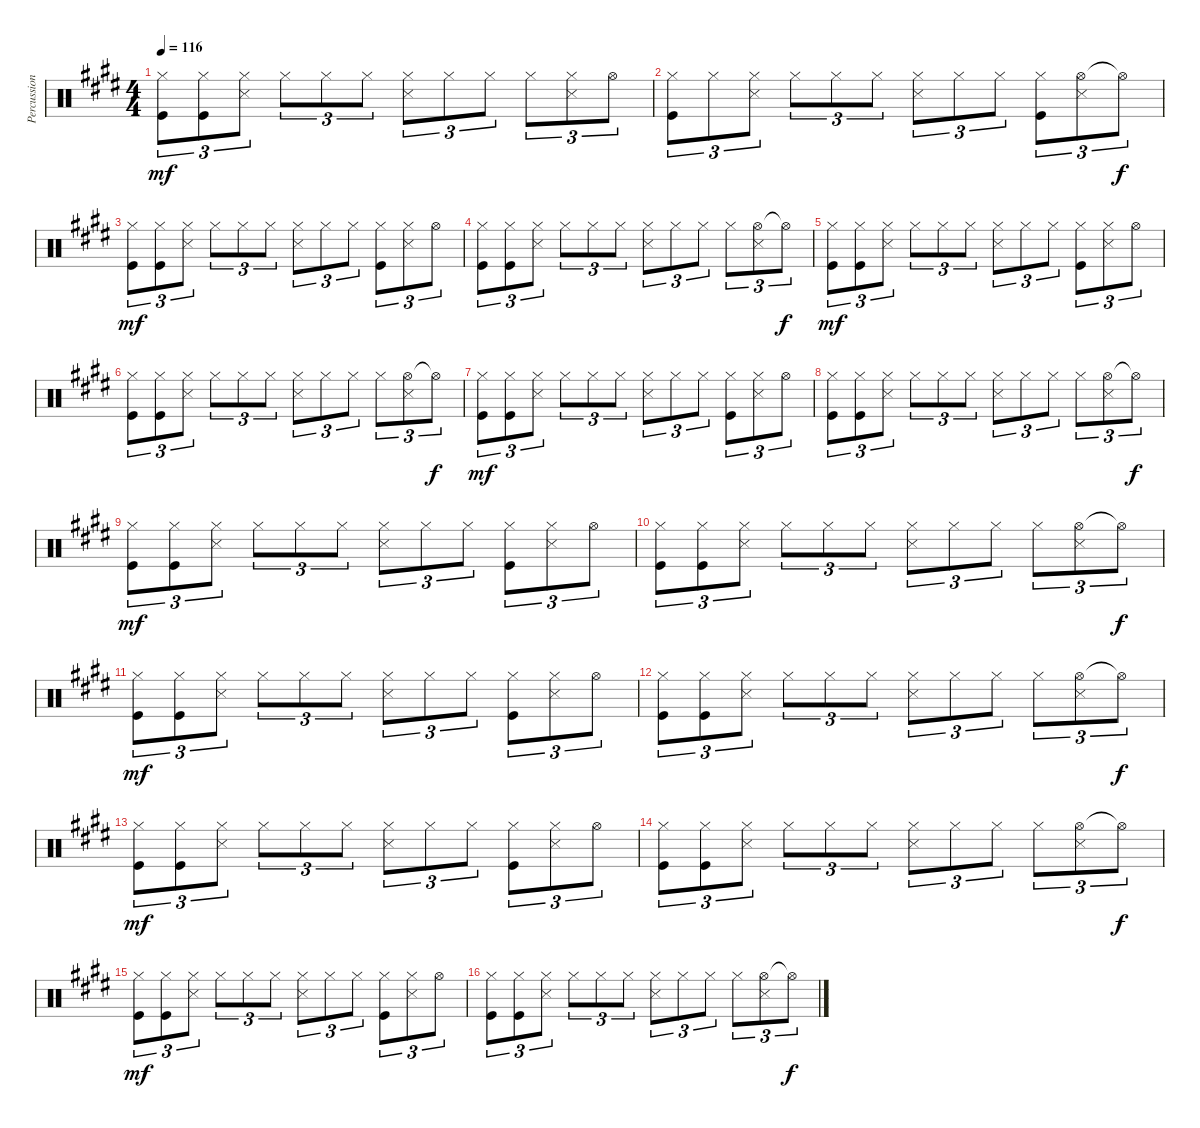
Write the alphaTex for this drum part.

\track ("Percussion" "Percussion") {instrument percussion}
\staff {score}
\articulation defaults
\ts (4 4)
\tempo 116
\clef neutral
\ks c#minor
("Hi-Hat (closed)" "Kick (hit)").8{tu (3 2) dy mf} ("Hi-Hat (closed)" "Kick (hit)").8{tu (3 2)} ("Hi-Hat (closed)" "Snare (side stick) 3").8{tu (3 2)} "Hi-Hat (closed)".8{tu (3 2)} "Hi-Hat (closed)".8{tu (3 2)} "Hi-Hat (closed)".8{tu (3 2)} ("Hi-Hat (closed)" "Snare (side stick) 3").8{tu (3 2)} "Hi-Hat (closed)".8{tu (3 2)} "Hi-Hat (closed)".8{tu (3 2)} "Hi-Hat (closed)".8{tu (3 2)} ("Hi-Hat (closed)" "Snare (side stick) 3").8{tu (3 2)} "Hi-Hat (open)".8{tu (3 2)} |
("Hi-Hat (closed)" "Kick (hit)").8{tu (3 2)} "Hi-Hat (closed)".8{tu (3 2)} ("Hi-Hat (closed)" "Snare (side stick) 3").8{tu (3 2)} "Hi-Hat (closed)".8{tu (3 2)} "Hi-Hat (closed)".8{tu (3 2)} "Hi-Hat (closed)".8{tu (3 2)} ("Hi-Hat (closed)" "Snare (side stick) 3").8{tu (3 2)} "Hi-Hat (closed)".8{tu (3 2)} "Hi-Hat (closed)".8{tu (3 2)} ("Hi-Hat (closed)" "Kick (hit)").8{tu (3 2)} ("Hi-Hat (open)" "Snare (side stick) 3").8{tu (3 2)} "Hi-Hat (open)"{t}.8{tu (3 2) dy f} |
("Hi-Hat (closed)" "Kick (hit)").8{tu (3 2) dy mf} ("Hi-Hat (closed)" "Kick (hit)").8{tu (3 2)} ("Hi-Hat (closed)" "Snare (side stick) 3").8{tu (3 2)} "Hi-Hat (closed)".8{tu (3 2)} "Hi-Hat (closed)".8{tu (3 2)} "Hi-Hat (closed)".8{tu (3 2)} ("Hi-Hat (closed)" "Snare (side stick) 3").8{tu (3 2)} "Hi-Hat (closed)".8{tu (3 2)} "Hi-Hat (closed)".8{tu (3 2)} ("Hi-Hat (closed)" "Kick (hit)").8{tu (3 2)} ("Hi-Hat (closed)" "Snare (side stick) 3").8{tu (3 2)} "Hi-Hat (open)".8{tu (3 2)} |
("Hi-Hat (closed)" "Kick (hit)").8{tu (3 2)} ("Hi-Hat (closed)" "Kick (hit)").8{tu (3 2)} ("Hi-Hat (closed)" "Snare (side stick) 3").8{tu (3 2)} "Hi-Hat (closed)".8{tu (3 2)} "Hi-Hat (closed)".8{tu (3 2)} "Hi-Hat (closed)".8{tu (3 2)} ("Hi-Hat (closed)" "Snare (side stick) 3").8{tu (3 2)} "Hi-Hat (closed)".8{tu (3 2)} "Hi-Hat (closed)".8{tu (3 2)} "Hi-Hat (closed)".8{tu (3 2)} ("Hi-Hat (open)" "Snare (side stick) 3").8{tu (3 2)} "Hi-Hat (open)"{t}.8{tu (3 2) dy f} |
("Hi-Hat (closed)" "Kick (hit)").8{tu (3 2) dy mf} ("Hi-Hat (closed)" "Kick (hit)").8{tu (3 2)} ("Hi-Hat (closed)" "Snare (side stick) 3").8{tu (3 2)} "Hi-Hat (closed)".8{tu (3 2)} "Hi-Hat (closed)".8{tu (3 2)} "Hi-Hat (closed)".8{tu (3 2)} ("Hi-Hat (closed)" "Snare (side stick) 3").8{tu (3 2)} "Hi-Hat (closed)".8{tu (3 2)} "Hi-Hat (closed)".8{tu (3 2)} ("Hi-Hat (closed)" "Kick (hit)").8{tu (3 2)} ("Hi-Hat (closed)" "Snare (side stick) 3").8{tu (3 2)} "Hi-Hat (open)".8{tu (3 2)} |
("Hi-Hat (closed)" "Kick (hit)").8{tu (3 2)} ("Hi-Hat (closed)" "Kick (hit)").8{tu (3 2)} ("Hi-Hat (closed)" "Snare (side stick) 3").8{tu (3 2)} "Hi-Hat (closed)".8{tu (3 2)} "Hi-Hat (closed)".8{tu (3 2)} "Hi-Hat (closed)".8{tu (3 2)} ("Hi-Hat (closed)" "Snare (side stick) 3").8{tu (3 2)} "Hi-Hat (closed)".8{tu (3 2)} "Hi-Hat (closed)".8{tu (3 2)} "Hi-Hat (closed)".8{tu (3 2)} ("Hi-Hat (open)" "Snare (side stick) 3").8{tu (3 2)} "Hi-Hat (open)"{t}.8{tu (3 2) dy f} |
("Hi-Hat (closed)" "Kick (hit)").8{tu (3 2) dy mf} ("Hi-Hat (closed)" "Kick (hit)").8{tu (3 2)} ("Hi-Hat (closed)" "Snare (side stick) 3").8{tu (3 2)} "Hi-Hat (closed)".8{tu (3 2)} "Hi-Hat (closed)".8{tu (3 2)} "Hi-Hat (closed)".8{tu (3 2)} ("Hi-Hat (closed)" "Snare (side stick) 3").8{tu (3 2)} "Hi-Hat (closed)".8{tu (3 2)} "Hi-Hat (closed)".8{tu (3 2)} ("Hi-Hat (closed)" "Kick (hit)").8{tu (3 2)} ("Hi-Hat (closed)" "Snare (side stick) 3").8{tu (3 2)} "Hi-Hat (open)".8{tu (3 2)} |
("Hi-Hat (closed)" "Kick (hit)").8{tu (3 2)} ("Hi-Hat (closed)" "Kick (hit)").8{tu (3 2)} ("Hi-Hat (closed)" "Snare (side stick) 3").8{tu (3 2)} "Hi-Hat (closed)".8{tu (3 2)} "Hi-Hat (closed)".8{tu (3 2)} "Hi-Hat (closed)".8{tu (3 2)} ("Hi-Hat (closed)" "Snare (side stick) 3").8{tu (3 2)} "Hi-Hat (closed)".8{tu (3 2)} "Hi-Hat (closed)".8{tu (3 2)} "Hi-Hat (closed)".8{tu (3 2)} ("Hi-Hat (open)" "Snare (side stick) 3").8{tu (3 2)} "Hi-Hat (open)"{t}.8{tu (3 2) dy f} |
("Hi-Hat (closed)" "Kick (hit)").8{tu (3 2) dy mf} ("Hi-Hat (closed)" "Kick (hit)").8{tu (3 2)} ("Hi-Hat (closed)" "Snare (side stick) 3").8{tu (3 2)} "Hi-Hat (closed)".8{tu (3 2)} "Hi-Hat (closed)".8{tu (3 2)} "Hi-Hat (closed)".8{tu (3 2)} ("Hi-Hat (closed)" "Snare (side stick) 3").8{tu (3 2)} "Hi-Hat (closed)".8{tu (3 2)} "Hi-Hat (closed)".8{tu (3 2)} ("Hi-Hat (closed)" "Kick (hit)").8{tu (3 2)} ("Hi-Hat (closed)" "Snare (side stick) 3").8{tu (3 2)} "Hi-Hat (open)".8{tu (3 2)} |
("Hi-Hat (closed)" "Kick (hit)").8{tu (3 2)} ("Hi-Hat (closed)" "Kick (hit)").8{tu (3 2)} ("Hi-Hat (closed)" "Snare (side stick) 3").8{tu (3 2)} "Hi-Hat (closed)".8{tu (3 2)} "Hi-Hat (closed)".8{tu (3 2)} "Hi-Hat (closed)".8{tu (3 2)} ("Hi-Hat (closed)" "Snare (side stick) 3").8{tu (3 2)} "Hi-Hat (closed)".8{tu (3 2)} "Hi-Hat (closed)".8{tu (3 2)} "Hi-Hat (closed)".8{tu (3 2)} ("Hi-Hat (open)" "Snare (side stick) 3").8{tu (3 2)} "Hi-Hat (open)"{t}.8{tu (3 2) dy f} |
("Hi-Hat (closed)" "Kick (hit)").8{tu (3 2) dy mf} ("Hi-Hat (closed)" "Kick (hit)").8{tu (3 2)} ("Hi-Hat (closed)" "Snare (side stick) 3").8{tu (3 2)} "Hi-Hat (closed)".8{tu (3 2)} "Hi-Hat (closed)".8{tu (3 2)} "Hi-Hat (closed)".8{tu (3 2)} ("Hi-Hat (closed)" "Snare (side stick) 3").8{tu (3 2)} "Hi-Hat (closed)".8{tu (3 2)} "Hi-Hat (closed)".8{tu (3 2)} ("Hi-Hat (closed)" "Kick (hit)").8{tu (3 2)} ("Hi-Hat (closed)" "Snare (side stick) 3").8{tu (3 2)} "Hi-Hat (open)".8{tu (3 2)} |
("Hi-Hat (closed)" "Kick (hit)").8{tu (3 2)} ("Hi-Hat (closed)" "Kick (hit)").8{tu (3 2)} ("Hi-Hat (closed)" "Snare (side stick) 3").8{tu (3 2)} "Hi-Hat (closed)".8{tu (3 2)} "Hi-Hat (closed)".8{tu (3 2)} "Hi-Hat (closed)".8{tu (3 2)} ("Hi-Hat (closed)" "Snare (side stick) 3").8{tu (3 2)} "Hi-Hat (closed)".8{tu (3 2)} "Hi-Hat (closed)".8{tu (3 2)} "Hi-Hat (closed)".8{tu (3 2)} ("Hi-Hat (open)" "Snare (side stick) 3").8{tu (3 2)} "Hi-Hat (open)"{t}.8{tu (3 2) dy f} |
("Hi-Hat (closed)" "Kick (hit)").8{tu (3 2) dy mf} ("Hi-Hat (closed)" "Kick (hit)").8{tu (3 2)} ("Hi-Hat (closed)" "Snare (side stick) 3").8{tu (3 2)} "Hi-Hat (closed)".8{tu (3 2)} "Hi-Hat (closed)".8{tu (3 2)} "Hi-Hat (closed)".8{tu (3 2)} ("Hi-Hat (closed)" "Snare (side stick) 3").8{tu (3 2)} "Hi-Hat (closed)".8{tu (3 2)} "Hi-Hat (closed)".8{tu (3 2)} ("Hi-Hat (closed)" "Kick (hit)").8{tu (3 2)} ("Hi-Hat (closed)" "Snare (side stick) 3").8{tu (3 2)} "Hi-Hat (open)".8{tu (3 2)} |
("Hi-Hat (closed)" "Kick (hit)").8{tu (3 2)} ("Hi-Hat (closed)" "Kick (hit)").8{tu (3 2)} ("Hi-Hat (closed)" "Snare (side stick) 3").8{tu (3 2)} "Hi-Hat (closed)".8{tu (3 2)} "Hi-Hat (closed)".8{tu (3 2)} "Hi-Hat (closed)".8{tu (3 2)} ("Hi-Hat (closed)" "Snare (side stick) 3").8{tu (3 2)} "Hi-Hat (closed)".8{tu (3 2)} "Hi-Hat (closed)".8{tu (3 2)} "Hi-Hat (closed)".8{tu (3 2)} ("Hi-Hat (open)" "Snare (side stick) 3").8{tu (3 2)} "Hi-Hat (open)"{t}.8{tu (3 2) dy f} |
("Hi-Hat (closed)" "Kick (hit)").8{tu (3 2) dy mf} ("Hi-Hat (closed)" "Kick (hit)").8{tu (3 2)} ("Hi-Hat (closed)" "Snare (side stick) 3").8{tu (3 2)} "Hi-Hat (closed)".8{tu (3 2)} "Hi-Hat (closed)".8{tu (3 2)} "Hi-Hat (closed)".8{tu (3 2)} ("Hi-Hat (closed)" "Snare (side stick) 3").8{tu (3 2)} "Hi-Hat (closed)".8{tu (3 2)} "Hi-Hat (closed)".8{tu (3 2)} ("Hi-Hat (closed)" "Kick (hit)").8{tu (3 2)} ("Hi-Hat (closed)" "Snare (side stick) 3").8{tu (3 2)} "Hi-Hat (open)".8{tu (3 2)} |
("Hi-Hat (closed)" "Kick (hit)").8{tu (3 2)} ("Hi-Hat (closed)" "Kick (hit)").8{tu (3 2)} ("Hi-Hat (closed)" "Snare (side stick) 3").8{tu (3 2)} "Hi-Hat (closed)".8{tu (3 2)} "Hi-Hat (closed)".8{tu (3 2)} "Hi-Hat (closed)".8{tu (3 2)} ("Hi-Hat (closed)" "Snare (side stick) 3").8{tu (3 2)} "Hi-Hat (closed)".8{tu (3 2)} "Hi-Hat (closed)".8{tu (3 2)} "Hi-Hat (closed)".8{tu (3 2)} ("Hi-Hat (open)" "Snare (side stick) 3").8{tu (3 2)} "Hi-Hat (open)"{t}.8{tu (3 2) dy f}
